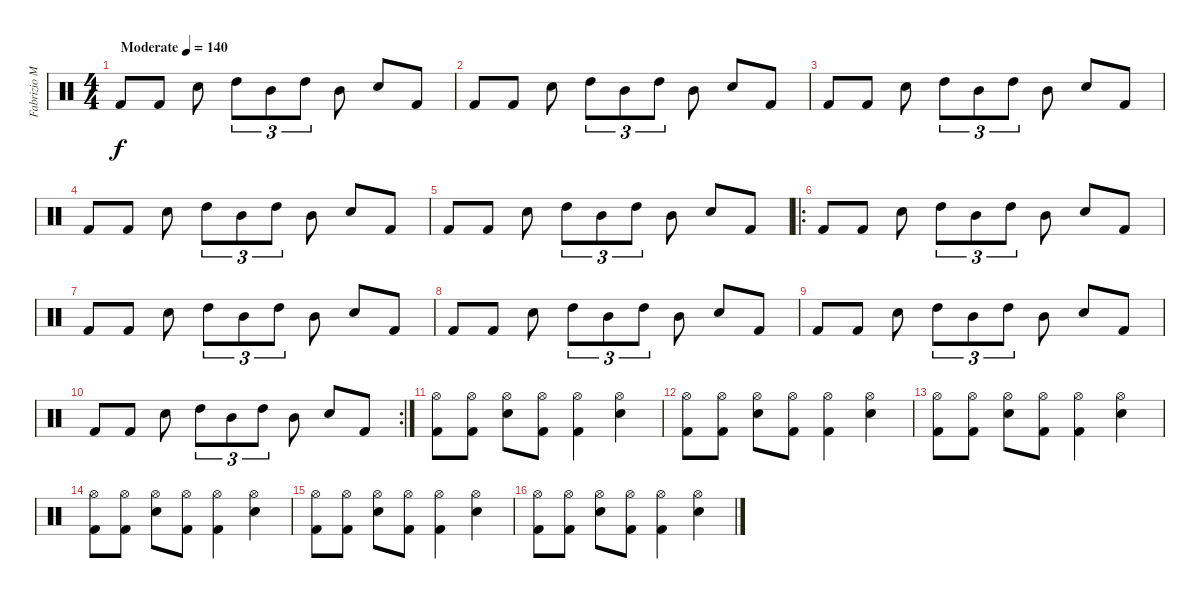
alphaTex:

\track ("Fabrizio Moretti" "Fabrizio M") {instrument percussion}
\staff {score}
\articulation defaults
\ts (4 4)
\tempo (140 "Moderate")
\clef neutral
\ks c "Kick (hit) 2".8{dy f} "Kick (hit) 2".8 "Electric Snare (hit)".8 "High Tom (hit)".8{tu (3 2)} "Mid Tom (hit)".8{tu (3 2)} "High Tom (hit)".8{tu (3 2)} "Mid Tom (hit)".8 "Electric Snare (hit)".8 "Kick (hit) 2".8
|
"Kick (hit) 2".8 "Kick (hit) 2".8 "Electric Snare (hit)".8 "High Tom (hit)".8{tu (3 2)} "Mid Tom (hit)".8{tu (3 2)} "High Tom (hit)".8{tu (3 2)} "Mid Tom (hit)".8 "Electric Snare (hit)".8 "Kick (hit) 2".8 |
"Kick (hit) 2".8 "Kick (hit) 2".8 "Electric Snare (hit)".8 "High Tom (hit)".8{tu (3 2)} "Mid Tom (hit)".8{tu (3 2)} "High Tom (hit)".8{tu (3 2)} "Mid Tom (hit)".8 "Electric Snare (hit)".8 "Kick (hit) 2".8 |
"Kick (hit) 2".8 "Kick (hit) 2".8 "Electric Snare (hit)".8 "High Tom (hit)".8{tu (3 2)} "Mid Tom (hit)".8{tu (3 2)} "High Tom (hit)".8{tu (3 2)} "Mid Tom (hit)".8 "Electric Snare (hit)".8 "Kick (hit) 2".8 |
"Kick (hit) 2".8 "Kick (hit) 2".8 "Electric Snare (hit)".8 "High Tom (hit)".8{tu (3 2)} "Mid Tom (hit)".8{tu (3 2)} "High Tom (hit)".8{tu (3 2)} "Mid Tom (hit)".8 "Electric Snare (hit)".8 "Kick (hit) 2".8 |
\ro "Kick (hit) 2".8 "Kick (hit) 2".8 "Electric Snare (hit)".8 "High Tom (hit)".8{tu (3 2)} "Mid Tom (hit)".8{tu (3 2)} "High Tom (hit)".8{tu (3 2)} "Mid Tom (hit)".8 "Electric Snare (hit)".8 "Kick (hit) 2".8
|
"Kick (hit) 2".8 "Kick (hit) 2".8 "Electric Snare (hit)".8 "High Tom (hit)".8{tu (3 2)} "Mid Tom (hit)".8{tu (3 2)} "High Tom (hit)".8{tu (3 2)} "Mid Tom (hit)".8 "Electric Snare (hit)".8 "Kick (hit) 2".8 |
"Kick (hit) 2".8 "Kick (hit) 2".8 "Electric Snare (hit)".8 "High Tom (hit)".8{tu (3 2)} "Mid Tom (hit)".8{tu (3 2)} "High Tom (hit)".8{tu (3 2)} "Mid Tom (hit)".8 "Electric Snare (hit)".8 "Kick (hit) 2".8 |
"Kick (hit) 2".8 "Kick (hit) 2".8 "Electric Snare (hit)".8 "High Tom (hit)".8{tu (3 2)} "Mid Tom (hit)".8{tu (3 2)} "High Tom (hit)".8{tu (3 2)} "Mid Tom (hit)".8 "Electric Snare (hit)".8 "Kick (hit) 2".8 |
\rc 2 "Kick (hit) 2".8 "Kick (hit) 2".8 "Electric Snare (hit)".8 "High Tom (hit)".8{tu (3 2)} "Mid Tom (hit)".8{tu (3 2)} "High Tom (hit)".8{tu (3 2)} "Mid Tom (hit)".8 "Electric Snare (hit)".8 "Kick (hit) 2".8
|
("Kick (hit) 2" "Hi-Hat (open)").8 ("Kick (hit) 2" "Hi-Hat (open)").8 ("Electric Snare (hit)" "Hi-Hat (open)").8 ("Kick (hit) 2" "Hi-Hat (open)").8 ("Kick (hit) 2" "Hi-Hat (open)").4 ("Electric Snare (hit)" "Hi-Hat (open)").4 |
("Kick (hit) 2" "Hi-Hat (open)").8 ("Kick (hit) 2" "Hi-Hat (open)").8 ("Electric Snare (hit)" "Hi-Hat (open)").8 ("Kick (hit) 2" "Hi-Hat (open)").8 ("Kick (hit) 2" "Hi-Hat (open)").4 ("Electric Snare (hit)" "Hi-Hat (open)").4 |
("Kick (hit) 2" "Hi-Hat (open)").8 ("Kick (hit) 2" "Hi-Hat (open)").8 ("Electric Snare (hit)" "Hi-Hat (open)").8 ("Kick (hit) 2" "Hi-Hat (open)").8 ("Kick (hit) 2" "Hi-Hat (open)").4 ("Electric Snare (hit)" "Hi-Hat (open)").4 |
("Kick (hit) 2" "Hi-Hat (open)").8 ("Kick (hit) 2" "Hi-Hat (open)").8 ("Electric Snare (hit)" "Hi-Hat (open)").8 ("Kick (hit) 2" "Hi-Hat (open)").8 ("Kick (hit) 2" "Hi-Hat (open)").4 ("Electric Snare (hit)" "Hi-Hat (open)").4 |
("Kick (hit) 2" "Hi-Hat (open)").8 ("Kick (hit) 2" "Hi-Hat (open)").8 ("Electric Snare (hit)" "Hi-Hat (open)").8 ("Kick (hit) 2" "Hi-Hat (open)").8 ("Kick (hit) 2" "Hi-Hat (open)").4 ("Electric Snare (hit)" "Hi-Hat (open)").4 |
("Kick (hit) 2" "Hi-Hat (open)").8 ("Kick (hit) 2" "Hi-Hat (open)").8 ("Electric Snare (hit)" "Hi-Hat (open)").8 ("Kick (hit) 2" "Hi-Hat (open)").8 ("Kick (hit) 2" "Hi-Hat (open)").4 ("Electric Snare (hit)" "Hi-Hat (open)").4
